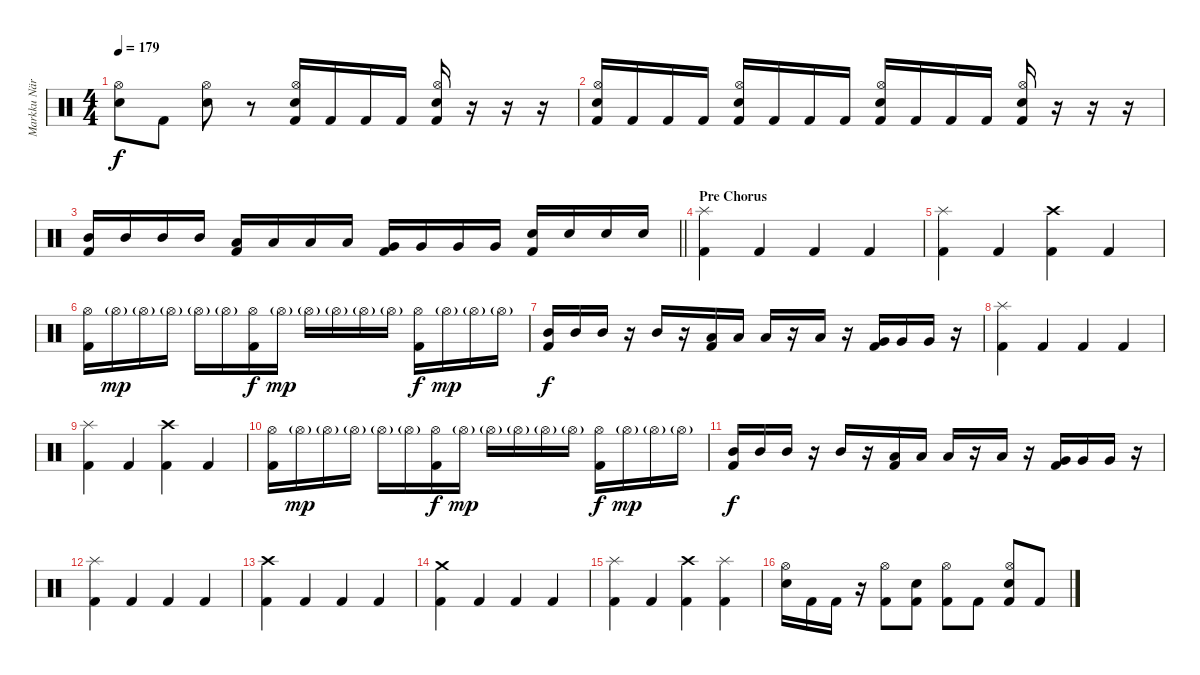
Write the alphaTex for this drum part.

\track ("Markku Näreneva (Drums)" "Markku När") {instrument percussion}
\staff {score}
\articulation defaults
\ts (4 4)
\tempo 179
\clef neutral
\ks c
("Snare (hit) 2" "Hi-Hat (open)").8{dy f} "Kick (hit) 2".8 ("Snare (hit) 2" "Hi-Hat (open)").8 r.8 ("Kick (hit) 2" "Snare (hit) 2" "Hi-Hat (open)").16 "Kick (hit) 2".16 "Kick (hit) 2".16 "Kick (hit) 2".16 ("Kick (hit) 2" "Snare (hit) 2" "Hi-Hat (open)").16 r.16 r.16 r.16 |
("Kick (hit) 2" "Snare (hit) 2" "Hi-Hat (open)").16 "Kick (hit) 2".16 "Kick (hit) 2".16 "Kick (hit) 2".16 ("Kick (hit) 2" "Snare (hit) 2" "Hi-Hat (open)").16 "Kick (hit) 2".16 "Kick (hit) 2".16 "Kick (hit) 2".16 ("Kick (hit) 2" "Snare (hit) 2" "Hi-Hat (open)").16 "Kick (hit) 2".16 "Kick (hit) 2".16 "Kick (hit) 2".16 ("Kick (hit) 2" "Snare (hit) 2" "Hi-Hat (open)").16 r.16 r.16 r.16 |
\barLineRight lightlight
("Kick (hit) 2" "Mid Tom (hit)").16 "Mid Tom (hit)".16 "Mid Tom (hit)".16 "Mid Tom (hit)".16 ("Kick (hit) 2" "Low Tom (hit)").16 "Low Tom (hit)".16 "Low Tom (hit)".16 "Low Tom (hit)".16 ("Kick (hit) 2" "Very Low Tom (hit)").16 "Very Low Tom (hit)".16 "Very Low Tom (hit)".16 "Very Low Tom (hit)".16 ("Kick (hit) 2" "Snare (hit) 2").16 "Snare (hit) 2".16 "Snare (hit) 2".16 "Snare (hit) 2".16 |
\section ("" "Pre Chorus")
("Kick (hit) 2" "Splash (hit)").4 "Kick (hit) 2".4 "Kick (hit) 2".4 "Kick (hit) 2".4 |
("Kick (hit) 2" "Splash (hit)").4 "Kick (hit) 2".4 ("Kick (hit) 2" "Crash high (hit)").4 "Kick (hit) 2".4 |
("Kick (hit) 2" "Hi-Hat (open)").16 "Hi-Hat (open)"{g}.16{dy mp} "Hi-Hat (open)"{g}.16 "Hi-Hat (open)"{g}.16 "Hi-Hat (open)"{g}.16 "Hi-Hat (open)"{g}.16 ("Kick (hit) 2" "Hi-Hat (open)").16{dy f} "Hi-Hat (open)"{g}.16{dy mp} "Hi-Hat (open)"{g}.16 "Hi-Hat (open)"{g}.16 "Hi-Hat (open)"{g}.16 "Hi-Hat (open)"{g}.16 ("Kick (hit) 2" "Hi-Hat (open)").16{dy f} "Hi-Hat (open)"{g}.16{dy mp} "Hi-Hat (open)"{g}.16 "Hi-Hat (open)"{g}.16 |
("Kick (hit) 2" "Mid Tom (hit)").16{dy f} "Mid Tom (hit)".16 "Mid Tom (hit)".16 r.16 "Mid Tom (hit)".16 r.16 ("Kick (hit) 2" "Low Tom (hit)").16 "Low Tom (hit)".16 "Low Tom (hit)".16 r.16 "Low Tom (hit)".16 r.16 ("Kick (hit) 2" "Very Low Tom (hit)").16 "Very Low Tom (hit)".16 "Very Low Tom (hit)".16 r.16 |
("Kick (hit) 2" "Splash (hit)").4 "Kick (hit) 2".4 "Kick (hit) 2".4 "Kick (hit) 2".4 |
("Kick (hit) 2" "Splash (hit)").4 "Kick (hit) 2".4 ("Kick (hit) 2" "Crash high (hit)").4 "Kick (hit) 2".4 |
("Kick (hit) 2" "Hi-Hat (open)").16 "Hi-Hat (open)"{g}.16{dy mp} "Hi-Hat (open)"{g}.16 "Hi-Hat (open)"{g}.16 "Hi-Hat (open)"{g}.16 "Hi-Hat (open)"{g}.16 ("Kick (hit) 2" "Hi-Hat (open)").16{dy f} "Hi-Hat (open)"{g}.16{dy mp} "Hi-Hat (open)"{g}.16 "Hi-Hat (open)"{g}.16 "Hi-Hat (open)"{g}.16 "Hi-Hat (open)"{g}.16 ("Kick (hit) 2" "Hi-Hat (open)").16{dy f} "Hi-Hat (open)"{g}.16{dy mp} "Hi-Hat (open)"{g}.16 "Hi-Hat (open)"{g}.16 |
("Kick (hit) 2" "Mid Tom (hit)").16{dy f} "Mid Tom (hit)".16 "Mid Tom (hit)".16 r.16 "Mid Tom (hit)".16 r.16 ("Kick (hit) 2" "Low Tom (hit)").16 "Low Tom (hit)".16 "Low Tom (hit)".16 r.16 "Low Tom (hit)".16 r.16 ("Kick (hit) 2" "Very Low Tom (hit)").16 "Very Low Tom (hit)".16 "Very Low Tom (hit)".16 r.16 |
("Kick (hit) 2" "Splash (hit)").4 "Kick (hit) 2".4 "Kick (hit) 2".4 "Kick (hit) 2".4 |
("Kick (hit) 2" "Crash high (hit)").4 "Kick (hit) 2".4 "Kick (hit) 2".4 "Kick (hit) 2".4 |
("Kick (hit) 2" "Crash medium (hit)").4 "Kick (hit) 2".4 "Kick (hit) 2".4 "Kick (hit) 2".4 |
("Kick (hit) 2" "Splash (hit)").4 "Kick (hit) 2".4 ("Kick (hit) 2" "Crash high (hit)").4 ("Kick (hit) 2" "Splash (hit)").4 |
("Snare (hit) 2" "Hi-Hat (open)").16 "Kick (hit) 2".16 "Kick (hit) 2".16 r.16 ("Kick (hit) 2" "Hi-Hat (open)").8 ("Kick (hit) 2" "Snare (hit) 2").8 ("Kick (hit) 2" "Hi-Hat (open)").8 "Kick (hit) 2".8 ("Kick (hit) 2" "Snare (hit) 2" "Hi-Hat (open)").8 "Kick (hit) 2".8
